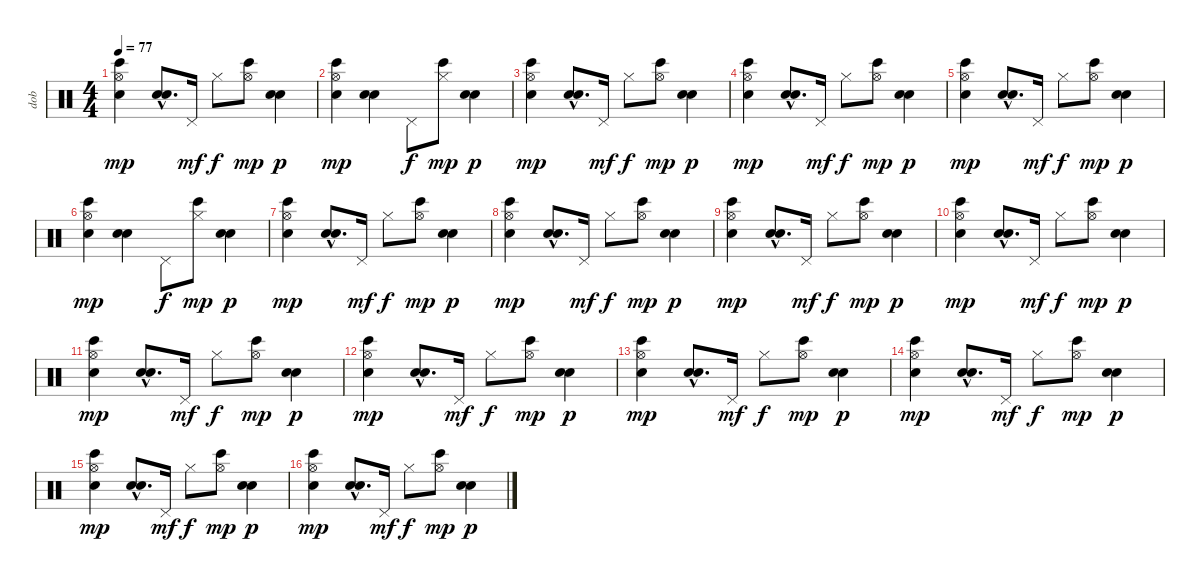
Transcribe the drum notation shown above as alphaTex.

\track ("dob" "dob") {instrument percussion}
\staff {score}
\articulation defaults
\ts (4 4)
\tempo 77
\clef neutral
\ks c
("Bongo High (hit)" "Snare (hit) 2" "Hi-Hat (open)").4{dy mp} ("Electric Snare (hit)"{hac} "Hand Clap (hit)"{hac}).8{d} "Pedal Hi-Hat (hit)".16{dy mf} "Hi-Hat (closed)".8{dy f} ("Bongo High (hit)" "Hi-Hat (open)").8{dy mp} ("Electric Snare (hit)" "Hand Clap (hit)").4{dy p} |
("Bongo High (hit)" "Snare (hit) 2" "Hi-Hat (open)").4{dy mp} ("Electric Snare (hit)" "Hand Clap (hit)").4 "Pedal Hi-Hat (hit)".8{dy f} ("Bongo High (hit)" "Hi-Hat (closed)").8{dy mp} ("Electric Snare (hit)" "Hand Clap (hit)").4{dy p} |
("Bongo High (hit)" "Snare (hit) 2" "Hi-Hat (open)").4{dy mp} ("Electric Snare (hit)"{hac} "Hand Clap (hit)"{hac}).8{d} "Pedal Hi-Hat (hit)".16{dy mf} "Hi-Hat (closed)".8{dy f} ("Bongo High (hit)" "Hi-Hat (open)").8{dy mp} ("Electric Snare (hit)" "Hand Clap (hit)").4{dy p} |
("Bongo High (hit)" "Snare (hit) 2" "Hi-Hat (open)").4{dy mp} ("Electric Snare (hit)"{hac} "Hand Clap (hit)"{hac}).8{d} "Pedal Hi-Hat (hit)".16{dy mf} "Hi-Hat (closed)".8{dy f} ("Bongo High (hit)" "Hi-Hat (open)").8{dy mp} ("Electric Snare (hit)" "Hand Clap (hit)").4{dy p} |
("Bongo High (hit)" "Snare (hit) 2" "Hi-Hat (open)").4{dy mp} ("Electric Snare (hit)"{hac} "Hand Clap (hit)"{hac}).8{d} "Pedal Hi-Hat (hit)".16{dy mf} "Hi-Hat (closed)".8{dy f} ("Bongo High (hit)" "Hi-Hat (open)").8{dy mp} ("Electric Snare (hit)" "Hand Clap (hit)").4{dy p} |
("Bongo High (hit)" "Snare (hit) 2" "Hi-Hat (open)").4{dy mp} ("Electric Snare (hit)" "Hand Clap (hit)").4 "Pedal Hi-Hat (hit)".8{dy f} ("Bongo High (hit)" "Hi-Hat (closed)").8{dy mp} ("Electric Snare (hit)" "Hand Clap (hit)").4{dy p} |
("Bongo High (hit)" "Snare (hit) 2" "Hi-Hat (open)").4{dy mp} ("Electric Snare (hit)"{hac} "Hand Clap (hit)"{hac}).8{d} "Pedal Hi-Hat (hit)".16{dy mf} "Hi-Hat (closed)".8{dy f} ("Bongo High (hit)" "Hi-Hat (open)").8{dy mp} ("Electric Snare (hit)" "Hand Clap (hit)").4{dy p} |
("Bongo High (hit)" "Snare (hit) 2" "Hi-Hat (open)").4{dy mp} ("Electric Snare (hit)"{hac} "Hand Clap (hit)"{hac}).8{d} "Pedal Hi-Hat (hit)".16{dy mf} "Hi-Hat (closed)".8{dy f} ("Bongo High (hit)" "Hi-Hat (open)").8{dy mp} ("Electric Snare (hit)" "Hand Clap (hit)").4{dy p} |
("Bongo High (hit)" "Snare (hit) 2" "Hi-Hat (open)").4{dy mp} ("Electric Snare (hit)"{hac} "Hand Clap (hit)"{hac}).8{d} "Pedal Hi-Hat (hit)".16{dy mf} "Hi-Hat (closed)".8{dy f} ("Bongo High (hit)" "Hi-Hat (open)").8{dy mp} ("Electric Snare (hit)" "Hand Clap (hit)").4{dy p} |
("Bongo High (hit)" "Snare (hit) 2" "Hi-Hat (open)").4{dy mp} ("Electric Snare (hit)"{hac} "Hand Clap (hit)"{hac}).8{d} "Pedal Hi-Hat (hit)".16{dy mf} "Hi-Hat (closed)".8{dy f} ("Bongo High (hit)" "Hi-Hat (open)").8{dy mp} ("Electric Snare (hit)" "Hand Clap (hit)").4{dy p} |
("Bongo High (hit)" "Snare (hit) 2" "Hi-Hat (open)").4{dy mp} ("Electric Snare (hit)"{hac} "Hand Clap (hit)"{hac}).8{d} "Pedal Hi-Hat (hit)".16{dy mf} "Hi-Hat (closed)".8{dy f} ("Bongo High (hit)" "Hi-Hat (open)").8{dy mp} ("Electric Snare (hit)" "Hand Clap (hit)").4{dy p} |
("Bongo High (hit)" "Snare (hit) 2" "Hi-Hat (open)").4{dy mp} ("Electric Snare (hit)"{hac} "Hand Clap (hit)"{hac}).8{d} "Pedal Hi-Hat (hit)".16{dy mf} "Hi-Hat (closed)".8{dy f} ("Bongo High (hit)" "Hi-Hat (open)").8{dy mp} ("Electric Snare (hit)" "Hand Clap (hit)").4{dy p} |
("Bongo High (hit)" "Snare (hit) 2" "Hi-Hat (open)").4{dy mp} ("Electric Snare (hit)"{hac} "Hand Clap (hit)"{hac}).8{d} "Pedal Hi-Hat (hit)".16{dy mf} "Hi-Hat (closed)".8{dy f} ("Bongo High (hit)" "Hi-Hat (open)").8{dy mp} ("Electric Snare (hit)" "Hand Clap (hit)").4{dy p} |
("Bongo High (hit)" "Snare (hit) 2" "Hi-Hat (open)").4{dy mp} ("Electric Snare (hit)"{hac} "Hand Clap (hit)"{hac}).8{d} "Pedal Hi-Hat (hit)".16{dy mf} "Hi-Hat (closed)".8{dy f} ("Bongo High (hit)" "Hi-Hat (open)").8{dy mp} ("Electric Snare (hit)" "Hand Clap (hit)").4{dy p} |
("Bongo High (hit)" "Snare (hit) 2" "Hi-Hat (open)").4{dy mp} ("Electric Snare (hit)"{hac} "Hand Clap (hit)"{hac}).8{d} "Pedal Hi-Hat (hit)".16{dy mf} "Hi-Hat (closed)".8{dy f} ("Bongo High (hit)" "Hi-Hat (open)").8{dy mp} ("Electric Snare (hit)" "Hand Clap (hit)").4{dy p} |
("Bongo High (hit)" "Snare (hit) 2" "Hi-Hat (open)").4{dy mp} ("Electric Snare (hit)"{hac} "Hand Clap (hit)"{hac}).8{d} "Pedal Hi-Hat (hit)".16{dy mf} "Hi-Hat (closed)".8{dy f} ("Bongo High (hit)" "Hi-Hat (open)").8{dy mp} ("Electric Snare (hit)" "Hand Clap (hit)").4{dy p}
